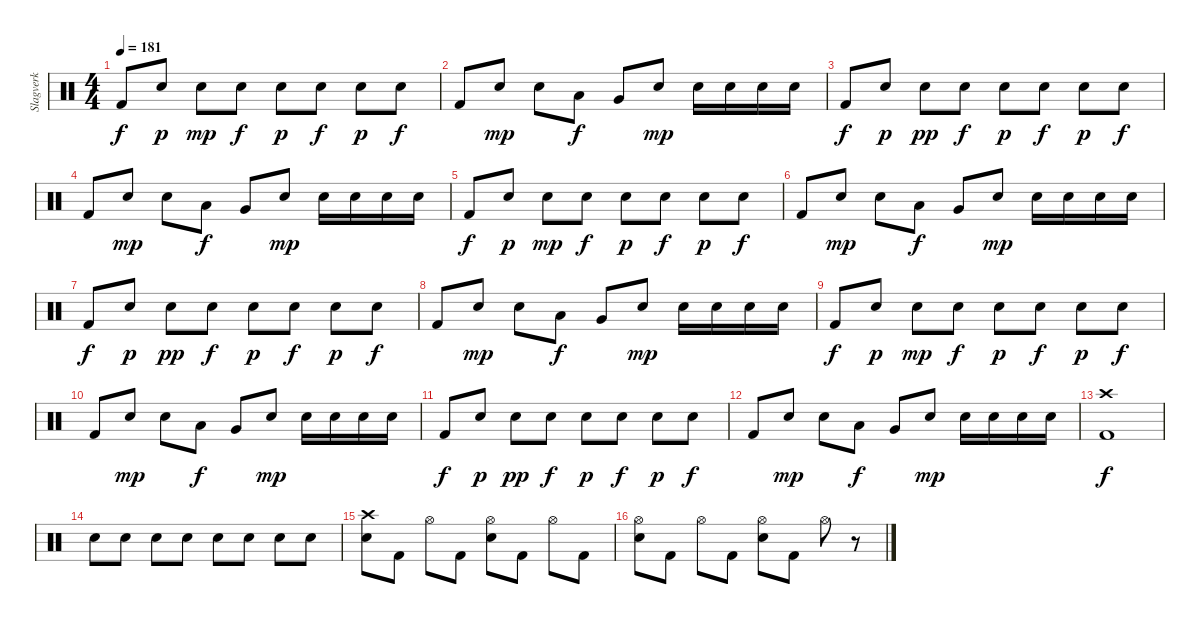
\track ("Slagverk" "Slagverk") {instrument percussion}
\staff {score}
\articulation defaults
\ts (4 4)
\tempo 181
\clef neutral
\ks c "Kick (hit) 2".8{dy f} "Electric Snare (hit)".8{dy p} "Electric Snare (hit)".8{dy mp} "Electric Snare (hit)".8{dy f} "Electric Snare (hit)".8{dy p} "Electric Snare (hit)".8{dy f} "Electric Snare (hit)".8{dy p} "Electric Snare (hit)".8{dy f}
|
"Kick (hit) 2".8 "Electric Snare (hit)".8{dy mp} "Electric Snare (hit)".8 "Low Tom (hit)".8{dy f} "Very Low Tom (hit)".8 "Electric Snare (hit)".8{dy mp} "Electric Snare (hit)".16 "Electric Snare (hit)".16 "Electric Snare (hit)".16 "Electric Snare (hit)".16 |
"Kick (hit) 2".8{dy f} "Electric Snare (hit)".8{dy p} "Electric Snare (hit)".8{dy pp} "Electric Snare (hit)".8{dy f} "Electric Snare (hit)".8{dy p} "Electric Snare (hit)".8{dy f} "Electric Snare (hit)".8{dy p} "Electric Snare (hit)".8{dy f} |
"Kick (hit) 2".8 "Electric Snare (hit)".8{dy mp} "Electric Snare (hit)".8 "Low Tom (hit)".8{dy f} "Very Low Tom (hit)".8 "Electric Snare (hit)".8{dy mp} "Electric Snare (hit)".16 "Electric Snare (hit)".16 "Electric Snare (hit)".16 "Electric Snare (hit)".16 |
"Kick (hit) 2".8{dy f} "Electric Snare (hit)".8{dy p} "Electric Snare (hit)".8{dy mp} "Electric Snare (hit)".8{dy f} "Electric Snare (hit)".8{dy p} "Electric Snare (hit)".8{dy f} "Electric Snare (hit)".8{dy p} "Electric Snare (hit)".8{dy f} |
"Kick (hit) 2".8 "Electric Snare (hit)".8{dy mp} "Electric Snare (hit)".8 "Low Tom (hit)".8{dy f} "Very Low Tom (hit)".8 "Electric Snare (hit)".8{dy mp} "Electric Snare (hit)".16 "Electric Snare (hit)".16 "Electric Snare (hit)".16 "Electric Snare (hit)".16 |
"Kick (hit) 2".8{dy f} "Electric Snare (hit)".8{dy p} "Electric Snare (hit)".8{dy pp} "Electric Snare (hit)".8{dy f} "Electric Snare (hit)".8{dy p} "Electric Snare (hit)".8{dy f} "Electric Snare (hit)".8{dy p} "Electric Snare (hit)".8{dy f} |
"Kick (hit) 2".8 "Electric Snare (hit)".8{dy mp} "Electric Snare (hit)".8 "Low Tom (hit)".8{dy f} "Very Low Tom (hit)".8 "Electric Snare (hit)".8{dy mp} "Electric Snare (hit)".16 "Electric Snare (hit)".16 "Electric Snare (hit)".16 "Electric Snare (hit)".16 |
"Kick (hit) 2".8{dy f} "Electric Snare (hit)".8{dy p} "Electric Snare (hit)".8{dy mp} "Electric Snare (hit)".8{dy f} "Electric Snare (hit)".8{dy p} "Electric Snare (hit)".8{dy f} "Electric Snare (hit)".8{dy p} "Electric Snare (hit)".8{dy f} |
"Kick (hit) 2".8 "Electric Snare (hit)".8{dy mp} "Electric Snare (hit)".8 "Low Tom (hit)".8{dy f} "Very Low Tom (hit)".8 "Electric Snare (hit)".8{dy mp} "Electric Snare (hit)".16 "Electric Snare (hit)".16 "Electric Snare (hit)".16 "Electric Snare (hit)".16 |
"Kick (hit) 2".8{dy f} "Electric Snare (hit)".8{dy p} "Electric Snare (hit)".8{dy pp} "Electric Snare (hit)".8{dy f} "Electric Snare (hit)".8{dy p} "Electric Snare (hit)".8{dy f} "Electric Snare (hit)".8{dy p} "Electric Snare (hit)".8{dy f} |
"Kick (hit) 2".8 "Electric Snare (hit)".8{dy mp} "Electric Snare (hit)".8 "Low Tom (hit)".8{dy f} "Very Low Tom (hit)".8 "Electric Snare (hit)".8{dy mp} "Electric Snare (hit)".16 "Electric Snare (hit)".16 "Electric Snare (hit)".16 "Electric Snare (hit)".16 |
("Crash high (hit)" "Kick (hit) 2").1{dy f} |
"Electric Snare (hit)".8 "Electric Snare (hit)".8 "Electric Snare (hit)".8 "Electric Snare (hit)".8 "Electric Snare (hit)".8 "Electric Snare (hit)".8 "Electric Snare (hit)".8 "Electric Snare (hit)".8 |
("Crash high (hit)" "Electric Snare (hit)").8{volume 16 balance 8} "Kick (hit) 2".8 "Hi-Hat (open)".8 "Kick (hit) 2".8 ("Hi-Hat (open)" "Electric Snare (hit)").8 "Kick (hit) 2".8 "Hi-Hat (open)".8 "Kick (hit) 2".8 |
("Hi-Hat (open)" "Electric Snare (hit)").8 "Kick (hit) 2".8 "Hi-Hat (open)".8 "Kick (hit) 2".8 ("Hi-Hat (open)" "Electric Snare (hit)").8 "Kick (hit) 2".8 "Hi-Hat (open)".8 r.8
